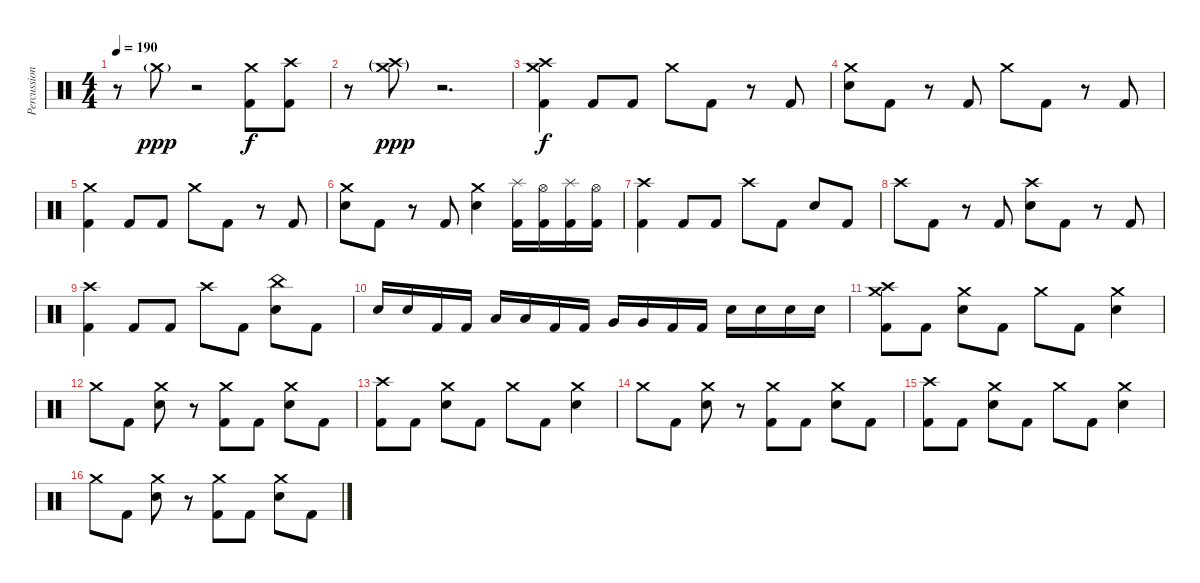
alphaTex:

\track ("Percussion" "Percussion") {instrument percussion}
\staff {score}
\articulation defaults
\ts (4 4)
\tempo 190
\clef neutral
\ks c
r.8{dy f} "Crash medium (hit)"{g}.8{dy ppp} r.2 ("Crash medium (hit)" "Kick (hit) 2").8{dy f} ("Crash high (hit)" "Kick (hit) 2").8 |
r.8 ("Crash high (hit)"{g} "Crash medium (hit)"{g}).8{dy ppp} r.2{d} |
("Crash medium (hit)" "Crash high (hit)" "Kick (hit) 2").4{dy f} "Kick (hit) 2".8 "Kick (hit) 2".8 "Crash medium (hit)".8 "Kick (hit) 2".8 r.8 "Kick (hit) 2".8 |
("Crash medium (hit)" "Electric Snare (hit)").8 "Kick (hit) 2".8 r.8 "Kick (hit) 2".8 "Crash medium (hit)".8 "Kick (hit) 2".8 r.8 "Kick (hit) 2".8 |
("Crash medium (hit)" "Kick (hit) 2").4 "Kick (hit) 2".8 "Kick (hit) 2".8 "Crash medium (hit)".8 "Kick (hit) 2".8 r.8 "Kick (hit) 2".8 |
("Crash medium (hit)" "Electric Snare (hit)").8 "Kick (hit) 2".8 r.8 "Kick (hit) 2".8 ("Crash medium (hit)" "Electric Snare (hit)").4 ("Splash (hit)" "Kick (hit) 2").16 ("Hi-Hat (open)" "Kick (hit) 2").16 ("Splash (hit)" "Kick (hit) 2").16 ("Hi-Hat (open)" "Kick (hit) 2").16 |
("Crash high (hit)" "Kick (hit) 2").4 "Kick (hit) 2".8 "Kick (hit) 2".8 "Crash high (hit)".8 "Kick (hit) 2".8 "Electric Snare (hit)".8 "Kick (hit) 2".8 |
"Crash high (hit)".8 "Kick (hit) 2".8 r.8 "Kick (hit) 2".8 ("Crash high (hit)" "Electric Snare (hit)").8 "Kick (hit) 2".8 r.8 "Kick (hit) 2".8 |
("Crash high (hit)" "Kick (hit) 2").4 "Kick (hit) 2".8 "Kick (hit) 2".8 "Crash high (hit)".8 "Kick (hit) 2".8 ("China (hit)" "Electric Snare (hit)").8 "Kick (hit) 2".8 |
"Electric Snare (hit)".16 "Electric Snare (hit)".16 "Kick (hit) 2".16 "Kick (hit) 2".16 "Low Tom (hit)".16 "Low Tom (hit)".16 "Kick (hit) 2".16 "Kick (hit) 2".16 "Very Low Tom (hit)".16 "Very Low Tom (hit)".16 "Kick (hit) 2".16 "Kick (hit) 2".16 "Electric Snare (hit)".16 "Electric Snare (hit)".16 "Electric Snare (hit)".16 "Electric Snare (hit)".16 |
("Crash high (hit)" "Crash medium (hit)" "Kick (hit) 2").8 "Kick (hit) 2".8 ("Crash medium (hit)" "Electric Snare (hit)").8 "Kick (hit) 2".8 "Crash medium (hit)".8 "Kick (hit) 2".8 ("Crash medium (hit)" "Electric Snare (hit)").4 |
"Crash medium (hit)".8 "Kick (hit) 2".8 ("Crash medium (hit)" "Electric Snare (hit)").8 r.8 ("Crash medium (hit)" "Kick (hit) 2").8 "Kick (hit) 2".8 ("Crash medium (hit)" "Electric Snare (hit)").8 "Kick (hit) 2".8 |
("Crash high (hit)" "Kick (hit) 2").8 "Kick (hit) 2".8 ("Crash medium (hit)" "Electric Snare (hit)").8 "Kick (hit) 2".8 "Crash medium (hit)".8 "Kick (hit) 2".8 ("Crash medium (hit)" "Electric Snare (hit)").4 |
"Crash medium (hit)".8 "Kick (hit) 2".8 ("Crash medium (hit)" "Electric Snare (hit)").8 r.8 ("Crash medium (hit)" "Kick (hit) 2").8 "Kick (hit) 2".8 ("Crash medium (hit)" "Electric Snare (hit)").8 "Kick (hit) 2".8 |
("Crash high (hit)" "Kick (hit) 2").8 "Kick (hit) 2".8 ("Crash medium (hit)" "Electric Snare (hit)").8 "Kick (hit) 2".8 "Crash medium (hit)".8 "Kick (hit) 2".8 ("Crash medium (hit)" "Electric Snare (hit)").4 |
"Crash medium (hit)".8 "Kick (hit) 2".8 ("Crash medium (hit)" "Electric Snare (hit)").8 r.8 ("Crash medium (hit)" "Kick (hit) 2").8 "Kick (hit) 2".8 ("Crash medium (hit)" "Electric Snare (hit)").8 "Kick (hit) 2".8
